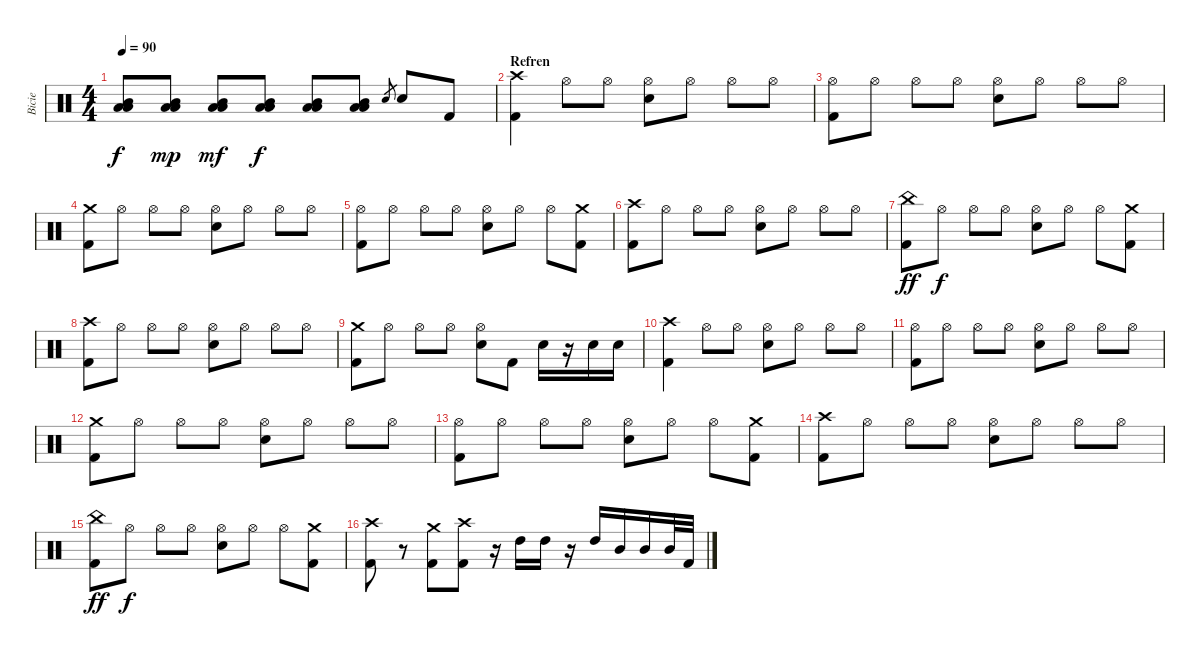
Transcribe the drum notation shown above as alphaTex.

\track ("Bicie" "Bicie") {instrument percussion}
\staff {score}
\articulation defaults
\ts (4 4)
\tempo 90
\clef neutral
\ks c
("Mid Tom (hit)" "Low Tom (hit)" "Low Floor Tom (hit)").8{dy f} ("Mid Tom (hit)" "Low Tom (hit)" "Low Floor Tom (hit)").8{dy mp} ("Mid Tom (hit)" "Low Tom (hit)" "Low Floor Tom (hit)").8{dy mf} ("Mid Tom (hit)" "Low Tom (hit)" "Low Floor Tom (hit)").8{dy f} ("Mid Tom (hit)" "Low Tom (hit)" "Low Floor Tom (hit)").8 ("Mid Tom (hit)" "Low Tom (hit)" "Low Floor Tom (hit)").8 "Electric Snare (hit)".8{gr} "Electric Snare (hit)".8 "Kick (hit) 2".8 |
\section ("" "Refren")
("Crash high (hit)" "Kick (hit) 2").4 "Hi-Hat (open)".8 "Hi-Hat (open)".8 ("Hi-Hat (open)" "Electric Snare (hit)").8 "Hi-Hat (open)".8 "Hi-Hat (open)".8 "Hi-Hat (open)".8 |
("Hi-Hat (open)" "Kick (hit) 2").8 "Hi-Hat (open)".8 "Hi-Hat (open)".8 "Hi-Hat (open)".8 ("Hi-Hat (open)" "Electric Snare (hit)").8 "Hi-Hat (open)".8 "Hi-Hat (open)".8 "Hi-Hat (open)".8 |
("Crash medium (hit)" "Kick (hit) 2").8 "Hi-Hat (open)".8 "Hi-Hat (open)".8 "Hi-Hat (open)".8 ("Hi-Hat (open)" "Electric Snare (hit)").8 "Hi-Hat (open)".8 "Hi-Hat (open)".8 "Hi-Hat (open)".8 |
("Hi-Hat (open)" "Kick (hit) 2").8 "Hi-Hat (open)".8 "Hi-Hat (open)".8 "Hi-Hat (open)".8 ("Hi-Hat (open)" "Electric Snare (hit)").8 "Hi-Hat (open)".8 "Hi-Hat (open)".8 ("Crash medium (hit)" "Kick (hit) 2").8 |
("Crash high (hit)" "Kick (hit) 2").8 "Hi-Hat (open)".8 "Hi-Hat (open)".8 "Hi-Hat (open)".8 ("Hi-Hat (open)" "Electric Snare (hit)").8 "Hi-Hat (open)".8 "Hi-Hat (open)".8 "Hi-Hat (open)".8 |
("China (hit)" "Kick (hit) 2").8{dy ff} "Hi-Hat (open)".8{dy f} "Hi-Hat (open)".8 "Hi-Hat (open)".8 ("Hi-Hat (open)" "Electric Snare (hit)").8 "Hi-Hat (open)".8 "Hi-Hat (open)".8 ("Crash medium (hit)" "Kick (hit) 2").8 |
("Crash high (hit)" "Kick (hit) 2").8 "Hi-Hat (open)".8 "Hi-Hat (open)".8 "Hi-Hat (open)".8 ("Hi-Hat (open)" "Electric Snare (hit)").8 "Hi-Hat (open)".8 "Hi-Hat (open)".8 "Hi-Hat (open)".8 |
("Crash medium (hit)" "Kick (hit) 2").8 "Hi-Hat (open)".8 "Hi-Hat (open)".8 "Hi-Hat (open)".8 ("Hi-Hat (open)" "Electric Snare (hit)").8 "Kick (hit) 2".8 "Electric Snare (hit)".16 r.16 "Electric Snare (hit)".16 "Electric Snare (hit)".16 |
("Crash high (hit)" "Kick (hit) 2").4 "Hi-Hat (open)".8 "Hi-Hat (open)".8 ("Hi-Hat (open)" "Electric Snare (hit)").8 "Hi-Hat (open)".8 "Hi-Hat (open)".8 "Hi-Hat (open)".8 |
("Hi-Hat (open)" "Kick (hit) 2").8 "Hi-Hat (open)".8 "Hi-Hat (open)".8 "Hi-Hat (open)".8 ("Hi-Hat (open)" "Electric Snare (hit)").8 "Hi-Hat (open)".8 "Hi-Hat (open)".8 "Hi-Hat (open)".8 |
("Crash medium (hit)" "Kick (hit) 2").8 "Hi-Hat (open)".8 "Hi-Hat (open)".8 "Hi-Hat (open)".8 ("Hi-Hat (open)" "Electric Snare (hit)").8 "Hi-Hat (open)".8 "Hi-Hat (open)".8 "Hi-Hat (open)".8 |
("Hi-Hat (open)" "Kick (hit) 2").8 "Hi-Hat (open)".8 "Hi-Hat (open)".8 "Hi-Hat (open)".8 ("Hi-Hat (open)" "Electric Snare (hit)").8 "Hi-Hat (open)".8 "Hi-Hat (open)".8 ("Crash medium (hit)" "Kick (hit) 2").8 |
("Crash high (hit)" "Kick (hit) 2").8 "Hi-Hat (open)".8 "Hi-Hat (open)".8 "Hi-Hat (open)".8 ("Hi-Hat (open)" "Electric Snare (hit)").8 "Hi-Hat (open)".8 "Hi-Hat (open)".8 "Hi-Hat (open)".8 |
("China (hit)" "Kick (hit) 2").8{dy ff} "Hi-Hat (open)".8{dy f} "Hi-Hat (open)".8 "Hi-Hat (open)".8 ("Hi-Hat (open)" "Electric Snare (hit)").8 "Hi-Hat (open)".8 "Hi-Hat (open)".8 ("Crash medium (hit)" "Kick (hit) 2").8 |
("Crash high (hit)" "Kick (hit) 2").8 r.8 ("Crash medium (hit)" "Kick (hit) 2").8 ("Crash high (hit)" "Kick (hit) 2").8 r.16 "High Tom (hit)".16 "High Tom (hit)".16 r.16 "High Tom (hit)".16 "Mid Tom (hit)".16 "Mid Tom (hit)".16 "Mid Tom (hit)".32 "Kick (hit) 2".32
